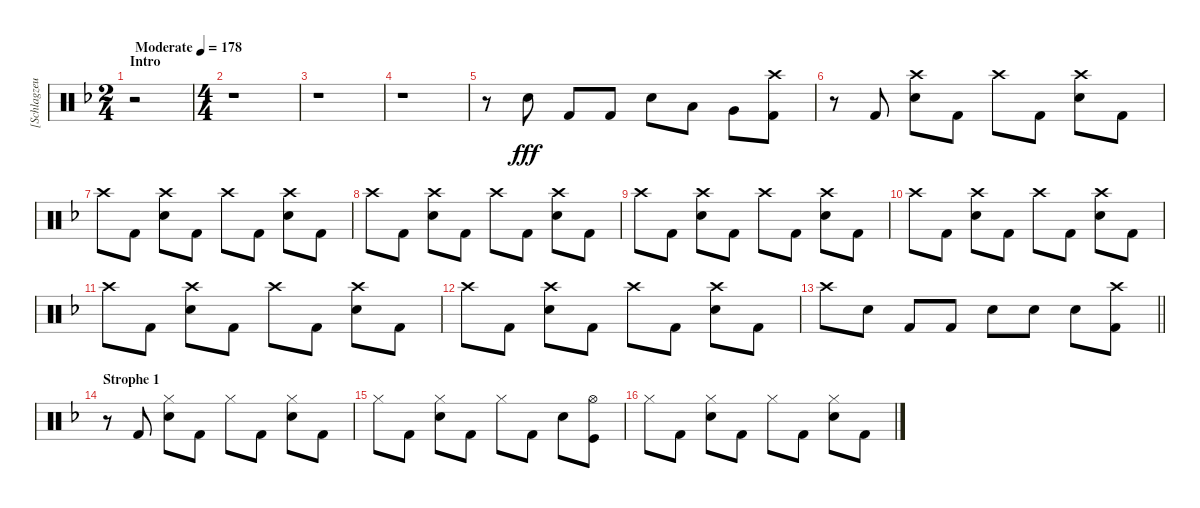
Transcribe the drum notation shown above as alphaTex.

\track ("[Schlagzeug]" "[Schlagzeu") {instrument percussion}
\staff {score}
\articulation defaults
\ts (2 4)
\section ("" "Intro")
\tempo (178 "Moderate")
\clef neutral
\ks dminor
r.2{dy fff} |
\ts (4 4)
r.1 |
r.1 |
r.1 |
r.8 "Electric Snare (hit)".8 "Kick (hit) 2".8 "Kick (hit) 2".8 "Electric Snare (hit)".8 "Low Tom (hit)".8 "Very Low Tom (hit)".8 ("Crash high (hit)" "Kick (hit) 2").8 |
r.8 "Kick (hit) 2".8 ("Crash high (hit)" "Electric Snare (hit)").8 "Kick (hit) 2".8 "Crash high (hit)".8 "Kick (hit) 2".8 ("Crash high (hit)" "Electric Snare (hit)").8 "Kick (hit) 2".8 |
"Crash high (hit)".8 "Kick (hit) 2".8 ("Crash high (hit)" "Electric Snare (hit)").8 "Kick (hit) 2".8 "Crash high (hit)".8 "Kick (hit) 2".8 ("Crash high (hit)" "Electric Snare (hit)").8 "Kick (hit) 2".8 |
"Crash high (hit)".8 "Kick (hit) 2".8 ("Crash high (hit)" "Electric Snare (hit)").8 "Kick (hit) 2".8 "Crash high (hit)".8 "Kick (hit) 2".8 ("Crash high (hit)" "Electric Snare (hit)").8 "Kick (hit) 2".8 |
"Crash high (hit)".8 "Kick (hit) 2".8 ("Crash high (hit)" "Electric Snare (hit)").8 "Kick (hit) 2".8 "Crash high (hit)".8 "Kick (hit) 2".8 ("Crash high (hit)" "Electric Snare (hit)").8 "Kick (hit) 2".8 |
"Crash high (hit)".8 "Kick (hit) 2".8 ("Crash high (hit)" "Electric Snare (hit)").8 "Kick (hit) 2".8 "Crash high (hit)".8 "Kick (hit) 2".8 ("Crash high (hit)" "Electric Snare (hit)").8 "Kick (hit) 2".8 |
"Crash high (hit)".8 "Kick (hit) 2".8 ("Crash high (hit)" "Electric Snare (hit)").8 "Kick (hit) 2".8 "Crash high (hit)".8 "Kick (hit) 2".8 ("Crash high (hit)" "Electric Snare (hit)").8 "Kick (hit) 2".8 |
"Crash high (hit)".8 "Kick (hit) 2".8 ("Crash high (hit)" "Electric Snare (hit)").8 "Kick (hit) 2".8 "Crash high (hit)".8 "Kick (hit) 2".8 ("Crash high (hit)" "Electric Snare (hit)").8 "Kick (hit) 2".8 |
\barLineRight lightlight "Crash high (hit)".8 "Electric Snare (hit)".8 "Kick (hit) 2".8 "Kick (hit) 2".8 "Electric Snare (hit)".8 "Electric Snare (hit)".8 "Electric Snare (hit)".8
("Crash high (hit)" "Kick (hit) 2").8 |
\section ("" "Strophe 1")
r.8 "Kick (hit) 2".8 ("Hi-Hat (closed)" "Electric Snare (hit)").8 "Kick (hit) 2".8 "Hi-Hat (closed)".8 "Kick (hit) 2".8 ("Hi-Hat (closed)" "Electric Snare (hit)").8 "Kick (hit) 2".8 |
"Hi-Hat (closed)".8 "Kick (hit) 2".8 ("Hi-Hat (closed)" "Electric Snare (hit)").8 "Kick (hit) 2".8 "Hi-Hat (closed)".8 "Kick (hit) 2".8 "Electric Snare (hit)".8 ("Hi-Hat (open)" "Kick (hit)").8 |
"Hi-Hat (closed)".8 "Kick (hit) 2".8 ("Hi-Hat (closed)" "Electric Snare (hit)").8 "Kick (hit) 2".8 "Hi-Hat (closed)".8 "Kick (hit) 2".8 ("Hi-Hat (closed)" "Electric Snare (hit)").8 "Kick (hit) 2".8
